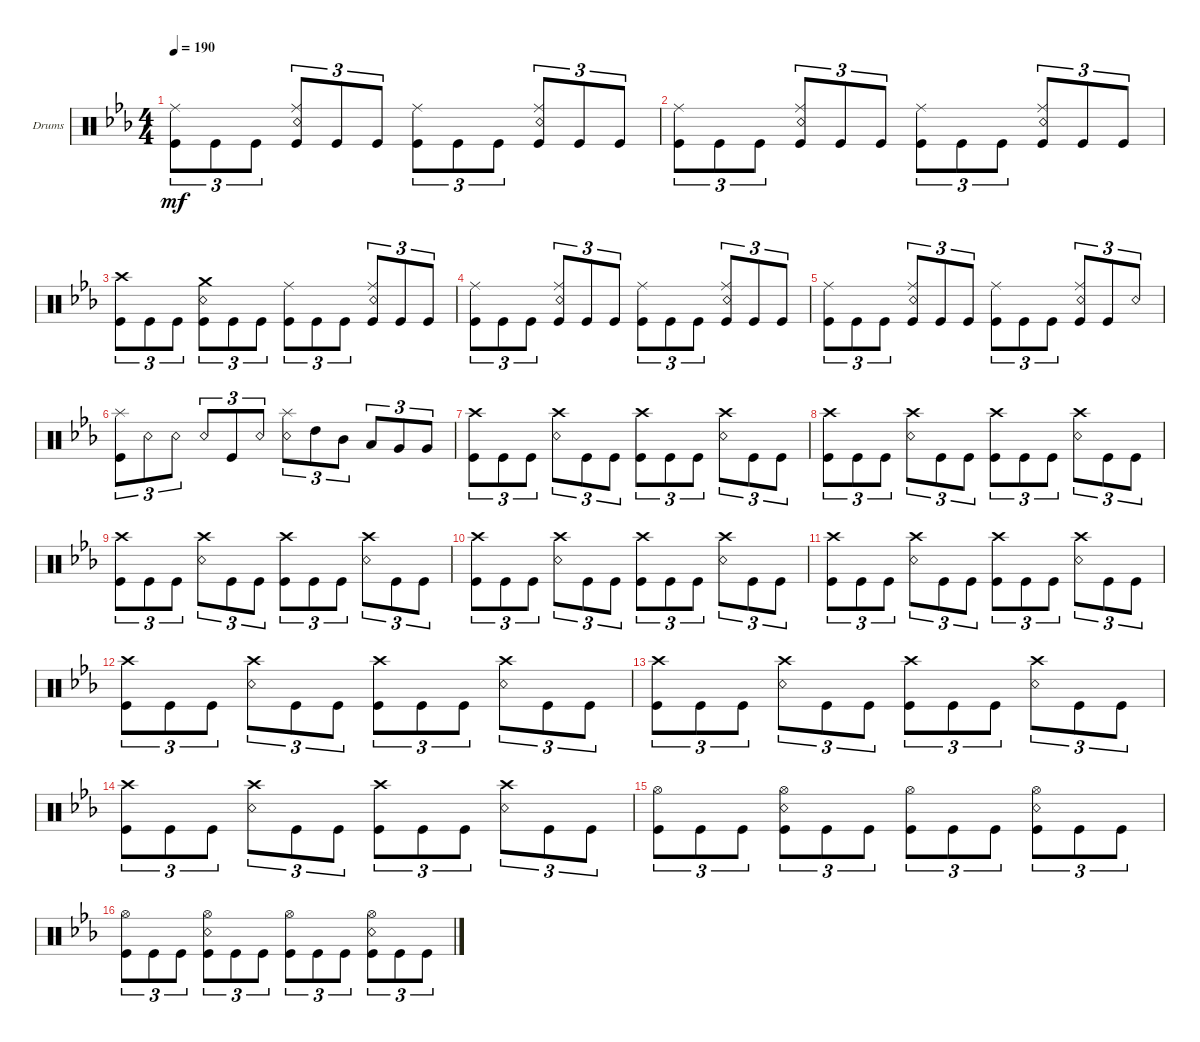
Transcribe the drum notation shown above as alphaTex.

\defaultSystemsLayout 4
\bracketExtendMode groupsimilarinstruments
\firstSystemTrackNameOrientation horizontal
\otherSystemsTrackNameOrientation horizontal
\track ("Drumkit" "Drums") {instrument percussion}
\staff {score}
\articulation defaults
\ts (4 4)
\tempo 190
\clef neutral
\ks cminor
("Kick (hit)" "Ride (middle)").8{tu (3 2) dy mf} "Kick (hit)".8{tu (3 2)} "Kick (hit)".8{tu (3 2)} ("Kick (hit)" "Snare (rim shot)" "Ride (middle)").8{tu (3 2)} "Kick (hit)".8{tu (3 2)} "Kick (hit)".8{tu (3 2)} ("Kick (hit)" "Ride (middle)").8{tu (3 2)} "Kick (hit)".8{tu (3 2)} "Kick (hit)".8{tu (3 2)} ("Kick (hit)" "Snare (rim shot)" "Ride (middle)").8{tu (3 2)} "Kick (hit)".8{tu (3 2)} "Kick (hit)".8{tu (3 2)} |
("Kick (hit)" "Ride (middle)").8{tu (3 2)} "Kick (hit)".8{tu (3 2)} "Kick (hit)".8{tu (3 2)} ("Kick (hit)" "Snare (rim shot)" "Ride (middle)").8{tu (3 2)} "Kick (hit)".8{tu (3 2)} "Kick (hit)".8{tu (3 2)} ("Kick (hit)" "Ride (middle)").8{tu (3 2)} "Kick (hit)".8{tu (3 2)} "Kick (hit)".8{tu (3 2)} ("Kick (hit)" "Snare (rim shot)" "Ride (middle)").8{tu (3 2)} "Kick (hit)".8{tu (3 2)} "Kick (hit)".8{tu (3 2)} |
("Kick (hit)" "Crash high (hit)").8{tu (3 2)} "Kick (hit)".8{tu (3 2)} "Kick (hit)".8{tu (3 2)} ("Kick (hit)" "Snare (rim shot)" "Crash medium (hit)").8{tu (3 2)} "Kick (hit)".8{tu (3 2)} "Kick (hit)".8{tu (3 2)} ("Kick (hit)" "Ride (middle)").8{tu (3 2)} "Kick (hit)".8{tu (3 2)} "Kick (hit)".8{tu (3 2)} ("Kick (hit)" "Snare (rim shot)" "Ride (middle)").8{tu (3 2)} "Kick (hit)".8{tu (3 2)} "Kick (hit)".8{tu (3 2)} |
("Kick (hit)" "Ride (middle)").8{tu (3 2)} "Kick (hit)".8{tu (3 2)} "Kick (hit)".8{tu (3 2)} ("Kick (hit)" "Snare (rim shot)" "Ride (middle)").8{tu (3 2)} "Kick (hit)".8{tu (3 2)} "Kick (hit)".8{tu (3 2)} ("Kick (hit)" "Ride (middle)").8{tu (3 2)} "Kick (hit)".8{tu (3 2)} "Kick (hit)".8{tu (3 2)} ("Kick (hit)" "Snare (rim shot)" "Ride (middle)").8{tu (3 2)} "Kick (hit)".8{tu (3 2)} "Kick (hit)".8{tu (3 2)} |
("Kick (hit)" "Ride (middle)").8{tu (3 2)} "Kick (hit)".8{tu (3 2)} "Kick (hit)".8{tu (3 2)} ("Kick (hit)" "Snare (rim shot)" "Ride (middle)").8{tu (3 2)} "Kick (hit)".8{tu (3 2)} "Kick (hit)".8{tu (3 2)} ("Kick (hit)" "Ride (middle)").8{tu (3 2)} "Kick (hit)".8{tu (3 2)} "Kick (hit)".8{tu (3 2)} ("Kick (hit)" "Snare (rim shot)" "Ride (middle)").8{tu (3 2)} "Kick (hit)".8{tu (3 2)} "Snare (rim shot)".8{tu (3 2)} |
("Kick (hit)" "Splash (hit)").8{tu (3 2)} "Snare (rim shot)".8{tu (3 2)} "Snare (rim shot)".8{tu (3 2)} "Snare (rim shot)".8{tu (3 2)} "Kick (hit)".8{tu (3 2)} "Snare (rim shot)".8{tu (3 2)} ("Snare (rim shot)" "Splash (hit)").8{tu (3 2)} "High Tom (hit)".8{tu (3 2)} "Mid Tom (hit)".8{tu (3 2)} "Low Tom (hit)".8{tu (3 2)} "Very Low Tom (hit)".8{tu (3 2)} "Very Low Tom (hit)".8{tu (3 2)} |
("Kick (hit)" "Crash high (hit)").8{tu (3 2)} "Kick (hit)".8{tu (3 2)} "Kick (hit)".8{tu (3 2)} ("Snare (rim shot)" "Crash high (hit)").8{tu (3 2)} "Kick (hit)".8{tu (3 2)} "Kick (hit)".8{tu (3 2)} ("Kick (hit)" "Crash high (hit)").8{tu (3 2)} "Kick (hit)".8{tu (3 2)} "Kick (hit)".8{tu (3 2)} ("Snare (rim shot)" "Crash high (hit)").8{tu (3 2)} "Kick (hit)".8{tu (3 2)} "Kick (hit)".8{tu (3 2)} |
("Kick (hit)" "Crash high (hit)").8{tu (3 2)} "Kick (hit)".8{tu (3 2)} "Kick (hit)".8{tu (3 2)} ("Snare (rim shot)" "Crash high (hit)").8{tu (3 2)} "Kick (hit)".8{tu (3 2)} "Kick (hit)".8{tu (3 2)} ("Kick (hit)" "Crash high (hit)").8{tu (3 2)} "Kick (hit)".8{tu (3 2)} "Kick (hit)".8{tu (3 2)} ("Snare (rim shot)" "Crash high (hit)").8{tu (3 2)} "Kick (hit)".8{tu (3 2)} "Kick (hit)".8{tu (3 2)} |
("Kick (hit)" "Crash high (hit)").8{tu (3 2)} "Kick (hit)".8{tu (3 2)} "Kick (hit)".8{tu (3 2)} ("Snare (rim shot)" "Crash high (hit)").8{tu (3 2)} "Kick (hit)".8{tu (3 2)} "Kick (hit)".8{tu (3 2)} ("Kick (hit)" "Crash high (hit)").8{tu (3 2)} "Kick (hit)".8{tu (3 2)} "Kick (hit)".8{tu (3 2)} ("Snare (rim shot)" "Crash high (hit)").8{tu (3 2)} "Kick (hit)".8{tu (3 2)} "Kick (hit)".8{tu (3 2)} |
("Kick (hit)" "Crash high (hit)").8{tu (3 2)} "Kick (hit)".8{tu (3 2)} "Kick (hit)".8{tu (3 2)} ("Snare (rim shot)" "Crash high (hit)").8{tu (3 2)} "Kick (hit)".8{tu (3 2)} "Kick (hit)".8{tu (3 2)} ("Kick (hit)" "Crash high (hit)").8{tu (3 2)} "Kick (hit)".8{tu (3 2)} "Kick (hit)".8{tu (3 2)} ("Snare (rim shot)" "Crash high (hit)").8{tu (3 2)} "Kick (hit)".8{tu (3 2)} "Kick (hit)".8{tu (3 2)} |
("Kick (hit)" "Crash high (hit)").8{tu (3 2)} "Kick (hit)".8{tu (3 2)} "Kick (hit)".8{tu (3 2)} ("Snare (rim shot)" "Crash high (hit)").8{tu (3 2)} "Kick (hit)".8{tu (3 2)} "Kick (hit)".8{tu (3 2)} ("Kick (hit)" "Crash high (hit)").8{tu (3 2)} "Kick (hit)".8{tu (3 2)} "Kick (hit)".8{tu (3 2)} ("Snare (rim shot)" "Crash high (hit)").8{tu (3 2)} "Kick (hit)".8{tu (3 2)} "Kick (hit)".8{tu (3 2)} |
("Kick (hit)" "Crash high (hit)").8{tu (3 2)} "Kick (hit)".8{tu (3 2)} "Kick (hit)".8{tu (3 2)} ("Snare (rim shot)" "Crash high (hit)").8{tu (3 2)} "Kick (hit)".8{tu (3 2)} "Kick (hit)".8{tu (3 2)} ("Kick (hit)" "Crash high (hit)").8{tu (3 2)} "Kick (hit)".8{tu (3 2)} "Kick (hit)".8{tu (3 2)} ("Snare (rim shot)" "Crash high (hit)").8{tu (3 2)} "Kick (hit)".8{tu (3 2)} "Kick (hit)".8{tu (3 2)} |
("Kick (hit)" "Crash high (hit)").8{tu (3 2)} "Kick (hit)".8{tu (3 2)} "Kick (hit)".8{tu (3 2)} ("Snare (rim shot)" "Crash high (hit)").8{tu (3 2)} "Kick (hit)".8{tu (3 2)} "Kick (hit)".8{tu (3 2)} ("Kick (hit)" "Crash high (hit)").8{tu (3 2)} "Kick (hit)".8{tu (3 2)} "Kick (hit)".8{tu (3 2)} ("Snare (rim shot)" "Crash high (hit)").8{tu (3 2)} "Kick (hit)".8{tu (3 2)} "Kick (hit)".8{tu (3 2)} |
("Kick (hit)" "Crash high (hit)").8{tu (3 2)} "Kick (hit)".8{tu (3 2)} "Kick (hit)".8{tu (3 2)} ("Snare (rim shot)" "Crash high (hit)").8{tu (3 2)} "Kick (hit)".8{tu (3 2)} "Kick (hit)".8{tu (3 2)} ("Kick (hit)" "Crash high (hit)").8{tu (3 2)} "Kick (hit)".8{tu (3 2)} "Kick (hit)".8{tu (3 2)} ("Snare (rim shot)" "Crash high (hit)").8{tu (3 2)} "Kick (hit)".8{tu (3 2)} "Kick (hit)".8{tu (3 2)} |
("Kick (hit)" "Hi-Hat (open)").8{tu (3 2)} "Kick (hit)".8{tu (3 2)} "Kick (hit)".8{tu (3 2)} ("Snare (rim shot)" "Hi-Hat (open)" "Kick (hit)").8{tu (3 2)} "Kick (hit)".8{tu (3 2)} "Kick (hit)".8{tu (3 2)} ("Kick (hit)" "Hi-Hat (open)").8{tu (3 2)} "Kick (hit)".8{tu (3 2)} "Kick (hit)".8{tu (3 2)} ("Snare (rim shot)" "Hi-Hat (open)" "Kick (hit)").8{tu (3 2)} "Kick (hit)".8{tu (3 2)} "Kick (hit)".8{tu (3 2)} |
("Kick (hit)" "Hi-Hat (open)").8{tu (3 2)} "Kick (hit)".8{tu (3 2)} "Kick (hit)".8{tu (3 2)} ("Snare (rim shot)" "Hi-Hat (open)" "Kick (hit)").8{tu (3 2)} "Kick (hit)".8{tu (3 2)} "Kick (hit)".8{tu (3 2)} ("Kick (hit)" "Hi-Hat (open)").8{tu (3 2)} "Kick (hit)".8{tu (3 2)} "Kick (hit)".8{tu (3 2)} ("Snare (rim shot)" "Hi-Hat (open)" "Kick (hit)").8{tu (3 2)} "Kick (hit)".8{tu (3 2)} "Kick (hit)".8{tu (3 2)}
